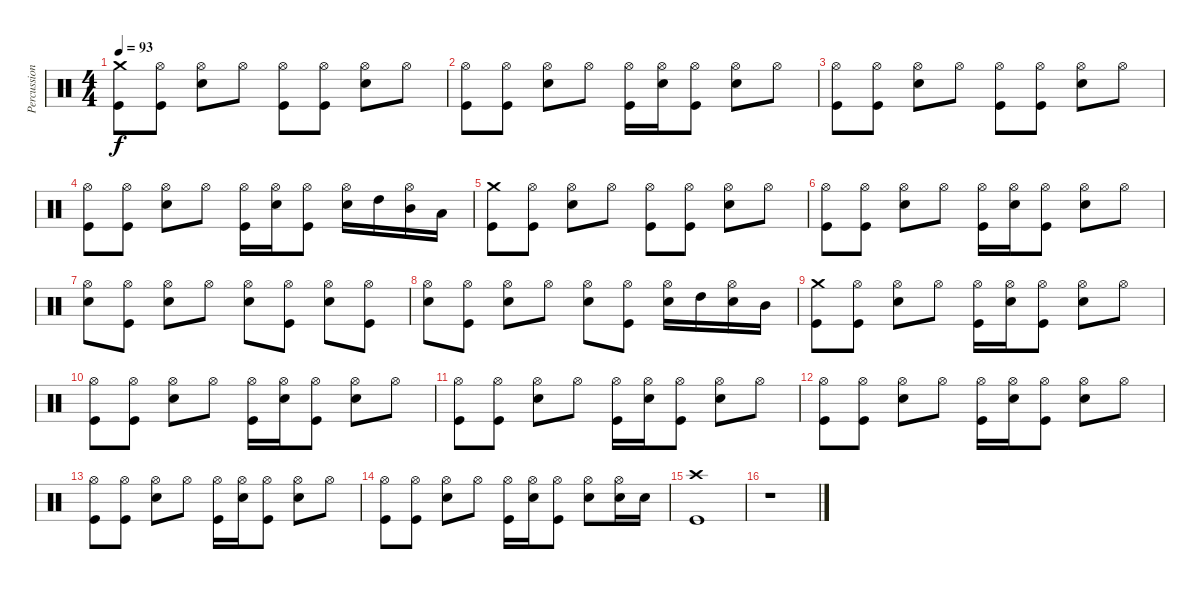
\track ("Percussions" "Percussion") {instrument percussion}
\staff {score}
\articulation defaults
\ts (4 4)
\tempo 93
\clef neutral
\ks c
("Crash medium (hit)" "Kick (hit)").8{dy f} ("Hi-Hat (open)" "Kick (hit)").8 ("Hi-Hat (open)" "Snare (hit) 2").8 "Hi-Hat (open)".8 ("Hi-Hat (open)" "Kick (hit)").8 ("Hi-Hat (open)" "Kick (hit)").8 ("Hi-Hat (open)" "Snare (hit) 2").8 "Hi-Hat (open)".8 |
("Hi-Hat (open)" "Kick (hit)").8 ("Hi-Hat (open)" "Kick (hit)").8 ("Hi-Hat (open)" "Snare (hit) 2").8 "Hi-Hat (open)".8 ("Hi-Hat (open)" "Kick (hit)").16 ("Hi-Hat (open)" "Snare (hit) 2").16 ("Hi-Hat (open)" "Kick (hit)").8 ("Hi-Hat (open)" "Snare (hit) 2").8 "Hi-Hat (open)".8 |
("Hi-Hat (open)" "Kick (hit)").8 ("Hi-Hat (open)" "Kick (hit)").8 ("Hi-Hat (open)" "Snare (hit) 2").8 "Hi-Hat (open)".8 ("Hi-Hat (open)" "Kick (hit)").8 ("Hi-Hat (open)" "Kick (hit)").8 ("Hi-Hat (open)" "Snare (hit) 2").8 "Hi-Hat (open)".8 |
("Hi-Hat (open)" "Kick (hit)").8 ("Hi-Hat (open)" "Kick (hit)").8 ("Hi-Hat (open)" "Snare (hit) 2").8 "Hi-Hat (open)".8 ("Hi-Hat (open)" "Kick (hit)").16 ("Hi-Hat (open)" "Snare (hit) 2").16 ("Hi-Hat (open)" "Kick (hit)").8 ("Hi-Hat (open)" "Snare (hit) 2").16 "High Tom (hit)".16 ("Hi-Hat (open)" "Mid Tom (hit)").16 "Low Tom (hit)".16 |
("Crash medium (hit)" "Kick (hit)").8 ("Hi-Hat (open)" "Kick (hit)").8 ("Hi-Hat (open)" "Snare (hit) 2").8 "Hi-Hat (open)".8 ("Hi-Hat (open)" "Kick (hit)").8 ("Hi-Hat (open)" "Kick (hit)").8 ("Hi-Hat (open)" "Snare (hit) 2").8 "Hi-Hat (open)".8 |
("Hi-Hat (open)" "Kick (hit)").8 ("Hi-Hat (open)" "Kick (hit)").8 ("Hi-Hat (open)" "Snare (hit) 2").8 "Hi-Hat (open)".8 ("Hi-Hat (open)" "Kick (hit)").16 ("Hi-Hat (open)" "Snare (hit) 2").16 ("Hi-Hat (open)" "Kick (hit)").8 ("Hi-Hat (open)" "Snare (hit) 2").8 "Hi-Hat (open)".8 |
("Hi-Hat (open)" "Snare (hit) 2").8 ("Hi-Hat (open)" "Kick (hit)").8 ("Hi-Hat (open)" "Snare (hit) 2").8 "Hi-Hat (open)".8 ("Hi-Hat (open)" "Snare (hit) 2").8 ("Hi-Hat (open)" "Kick (hit)").8 ("Hi-Hat (open)" "Snare (hit) 2").8 ("Hi-Hat (open)" "Kick (hit)").8 |
("Hi-Hat (open)" "Snare (hit) 2").8 ("Hi-Hat (open)" "Kick (hit)").8 ("Hi-Hat (open)" "Snare (hit) 2").8 "Hi-Hat (open)".8 ("Hi-Hat (open)" "Snare (hit) 2").8 ("Hi-Hat (open)" "Kick (hit)").8 ("Hi-Hat (open)" "Snare (hit) 2").16 "High Tom (hit)".16 ("Hi-Hat (open)" "Snare (hit) 2").16 "Mid Tom (hit)".16 |
("Crash medium (hit)" "Kick (hit)").8 ("Hi-Hat (open)" "Kick (hit)").8 ("Hi-Hat (open)" "Snare (hit) 2").8 "Hi-Hat (open)".8 ("Hi-Hat (open)" "Kick (hit)").16 ("Hi-Hat (open)" "Snare (hit) 2").16 ("Hi-Hat (open)" "Kick (hit)").8 ("Hi-Hat (open)" "Snare (hit) 2").8 "Hi-Hat (open)".8 |
("Hi-Hat (open)" "Kick (hit)").8 ("Hi-Hat (open)" "Kick (hit)").8 ("Hi-Hat (open)" "Snare (hit) 2").8 "Hi-Hat (open)".8 ("Hi-Hat (open)" "Kick (hit)").16 ("Hi-Hat (open)" "Snare (hit) 2").16 ("Hi-Hat (open)" "Kick (hit)").8 ("Hi-Hat (open)" "Snare (hit) 2").8 "Hi-Hat (open)".8 |
("Hi-Hat (open)" "Kick (hit)").8 ("Hi-Hat (open)" "Kick (hit)").8 ("Hi-Hat (open)" "Snare (hit) 2").8 "Hi-Hat (open)".8 ("Hi-Hat (open)" "Kick (hit)").16 ("Hi-Hat (open)" "Snare (hit) 2").16 ("Hi-Hat (open)" "Kick (hit)").8 ("Hi-Hat (open)" "Snare (hit) 2").8 "Hi-Hat (open)".8 |
("Hi-Hat (open)" "Kick (hit)").8 ("Hi-Hat (open)" "Kick (hit)").8 ("Hi-Hat (open)" "Snare (hit) 2").8 "Hi-Hat (open)".8 ("Hi-Hat (open)" "Kick (hit)").16 ("Hi-Hat (open)" "Snare (hit) 2").16 ("Hi-Hat (open)" "Kick (hit)").8 ("Hi-Hat (open)" "Snare (hit) 2").8 "Hi-Hat (open)".8 |
("Hi-Hat (open)" "Kick (hit)").8 ("Hi-Hat (open)" "Kick (hit)").8 ("Hi-Hat (open)" "Snare (hit) 2").8 "Hi-Hat (open)".8 ("Hi-Hat (open)" "Kick (hit)").16 ("Hi-Hat (open)" "Snare (hit) 2").16 ("Hi-Hat (open)" "Kick (hit)").8 ("Hi-Hat (open)" "Snare (hit) 2").8 "Hi-Hat (open)".8 |
("Hi-Hat (open)" "Kick (hit)").8 ("Hi-Hat (open)" "Kick (hit)").8 ("Hi-Hat (open)" "Snare (hit) 2").8 "Hi-Hat (open)".8 ("Hi-Hat (open)" "Kick (hit)").16 ("Hi-Hat (open)" "Snare (hit) 2").16 ("Hi-Hat (open)" "Kick (hit)").8 ("Hi-Hat (open)" "Snare (hit) 2").8 ("Hi-Hat (open)" "Snare (hit) 2").16 "Snare (hit) 2".16 |
("Crash high (hit)" "Kick (hit)").1 |
r.1
